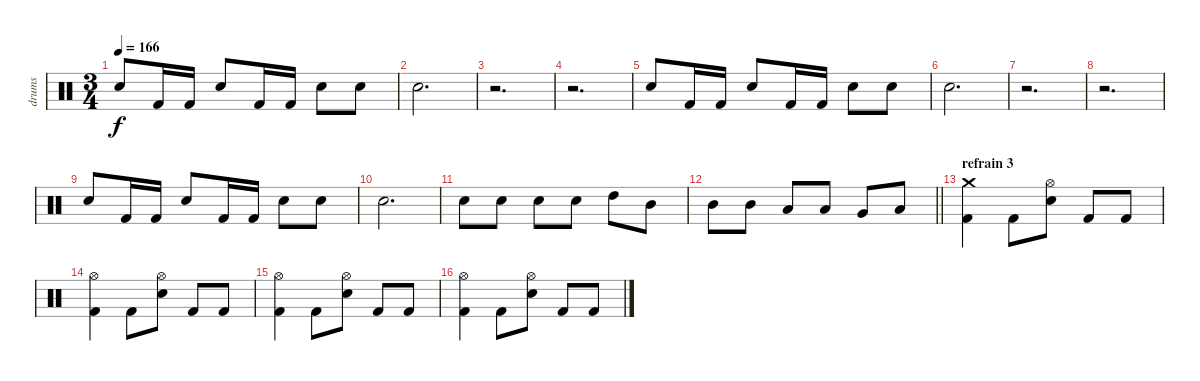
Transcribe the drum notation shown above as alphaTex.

\track ("drums" "drums") {instrument percussion}
\staff {score}
\articulation defaults
\ts (3 4)
\tempo 166
\clef neutral
\ks c "Electric Snare (hit)".8{dy f} "Kick (hit) 2".16 "Kick (hit) 2".16 "Electric Snare (hit)".8 "Kick (hit) 2".16 "Kick (hit) 2".16 "Electric Snare (hit)".8 "Electric Snare (hit)".8
|
"Electric Snare (hit)".2{d} |
r.2{d} |
r.2{d} |
"Electric Snare (hit)".8 "Kick (hit) 2".16 "Kick (hit) 2".16 "Electric Snare (hit)".8 "Kick (hit) 2".16 "Kick (hit) 2".16 "Electric Snare (hit)".8 "Electric Snare (hit)".8 |
"Electric Snare (hit)".2{d} |
r.2{d} |
r.2{d} |
"Electric Snare (hit)".8 "Kick (hit) 2".16 "Kick (hit) 2".16 "Electric Snare (hit)".8 "Kick (hit) 2".16 "Kick (hit) 2".16 "Electric Snare (hit)".8 "Electric Snare (hit)".8 |
"Electric Snare (hit)".2{d} |
"Electric Snare (hit)".8 "Electric Snare (hit)".8 "Electric Snare (hit)".8 "Electric Snare (hit)".8 "High Tom (hit)".8 "Mid Tom (hit)".8 |
\barLineRight lightlight "Mid Tom (hit)".8 "Mid Tom (hit)".8 "Low Tom (hit)".8 "Low Tom (hit)".8 "Very Low Tom (hit)".8 "Low Floor Tom (hit)".8
|
\section ("" "refrain 3")
("Crash medium (hit)" "Kick (hit) 2").4 "Kick (hit) 2".8 ("Hi-Hat (open)" "Electric Snare (hit)").8 "Kick (hit) 2".8 "Kick (hit) 2".8 |
("Hi-Hat (open)" "Kick (hit) 2").4 "Kick (hit) 2".8 ("Hi-Hat (open)" "Electric Snare (hit)").8 "Kick (hit) 2".8 "Kick (hit) 2".8 |
("Hi-Hat (open)" "Kick (hit) 2").4 "Kick (hit) 2".8 ("Hi-Hat (open)" "Electric Snare (hit)").8 "Kick (hit) 2".8 "Kick (hit) 2".8 |
("Hi-Hat (open)" "Kick (hit) 2").4 "Kick (hit) 2".8 ("Hi-Hat (open)" "Electric Snare (hit)").8 "Kick (hit) 2".8 "Kick (hit) 2".8
